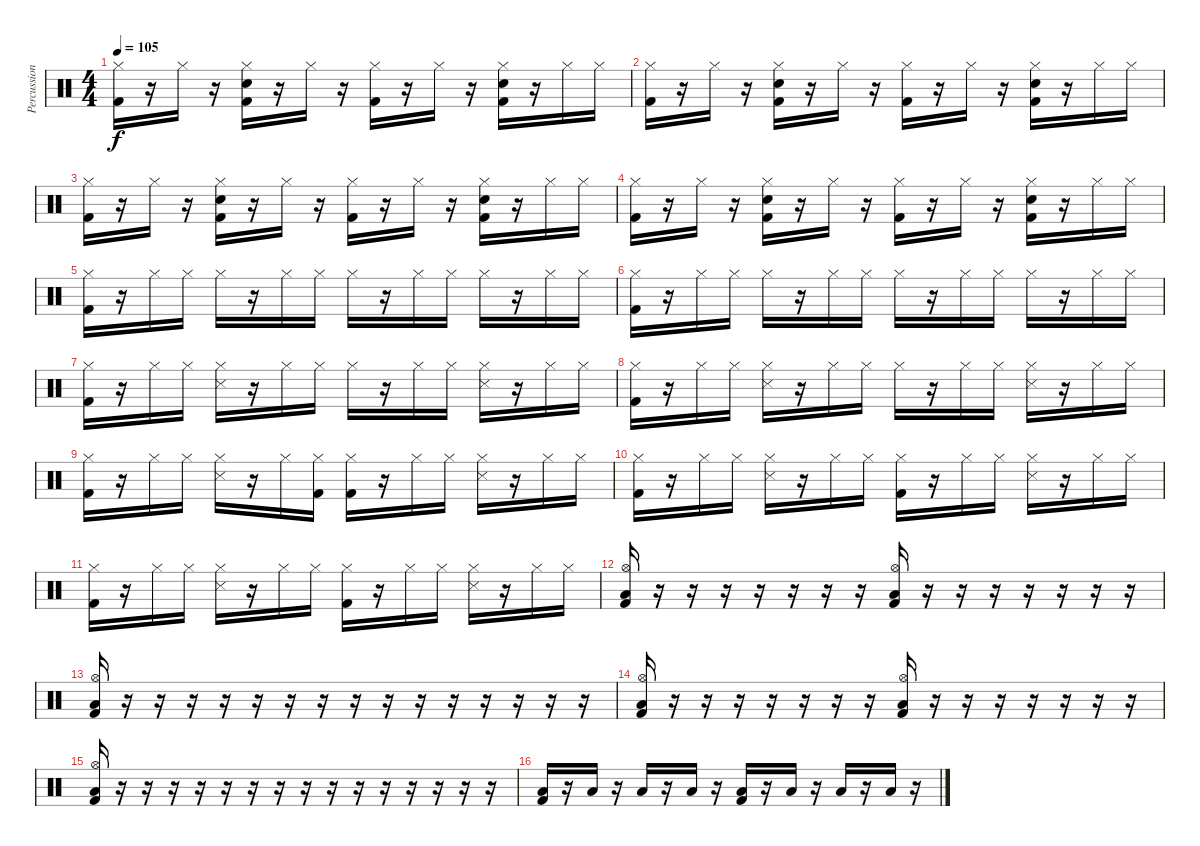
\track ("Percussion" "Percussion") {instrument percussion}
\staff {score}
\articulation defaults
\ts (4 4)
\tempo 105
\clef neutral
\ks c
("Hi-Hat (closed)" "Kick (hit) 2").16{dy f} r.16 "Hi-Hat (closed)".16 r.16 ("Hi-Hat (closed)" "Snare (hit) 2" "Kick (hit) 2").16 r.16 "Hi-Hat (closed)".16 r.16 ("Hi-Hat (closed)" "Kick (hit) 2").16 r.16 "Hi-Hat (closed)".16 r.16 ("Hi-Hat (closed)" "Snare (hit) 2" "Kick (hit) 2").16 r.16 "Hi-Hat (closed)".16 "Hi-Hat (closed)".16 |
("Hi-Hat (closed)" "Kick (hit) 2").16 r.16 "Hi-Hat (closed)".16 r.16 ("Hi-Hat (closed)" "Snare (hit) 2" "Kick (hit) 2").16 r.16 "Hi-Hat (closed)".16 r.16 ("Hi-Hat (closed)" "Kick (hit) 2").16 r.16 "Hi-Hat (closed)".16 r.16 ("Hi-Hat (closed)" "Snare (hit) 2" "Kick (hit) 2").16 r.16 "Hi-Hat (closed)".16 "Hi-Hat (closed)".16 |
("Hi-Hat (closed)" "Kick (hit) 2").16 r.16 "Hi-Hat (closed)".16 r.16 ("Hi-Hat (closed)" "Snare (hit) 2" "Kick (hit) 2").16 r.16 "Hi-Hat (closed)".16 r.16 ("Hi-Hat (closed)" "Kick (hit) 2").16 r.16 "Hi-Hat (closed)".16 r.16 ("Hi-Hat (closed)" "Snare (hit) 2" "Kick (hit) 2").16 r.16 "Hi-Hat (closed)".16 "Hi-Hat (closed)".16 |
("Hi-Hat (closed)" "Kick (hit) 2").16 r.16 "Hi-Hat (closed)".16 r.16 ("Hi-Hat (closed)" "Snare (hit) 2" "Kick (hit) 2").16 r.16 "Hi-Hat (closed)".16 r.16 ("Hi-Hat (closed)" "Kick (hit) 2").16 r.16 "Hi-Hat (closed)".16 r.16 ("Hi-Hat (closed)" "Snare (hit) 2" "Kick (hit) 2").16 r.16 "Hi-Hat (closed)".16 "Hi-Hat (closed)".16 |
("Hi-Hat (closed)" "Kick (hit) 2").16 r.16 "Hi-Hat (closed)".16 "Hi-Hat (closed)".16 "Hi-Hat (closed)".16 r.16 "Hi-Hat (closed)".16 "Hi-Hat (closed)".16 "Hi-Hat (closed)".16 r.16 "Hi-Hat (closed)".16 "Hi-Hat (closed)".16 "Hi-Hat (closed)".16 r.16 "Hi-Hat (closed)".16 "Hi-Hat (closed)".16 |
("Hi-Hat (closed)" "Kick (hit) 2").16 r.16 "Hi-Hat (closed)".16 "Hi-Hat (closed)".16 "Hi-Hat (closed)".16 r.16 "Hi-Hat (closed)".16 "Hi-Hat (closed)".16 "Hi-Hat (closed)".16 r.16 "Hi-Hat (closed)".16 "Hi-Hat (closed)".16 "Hi-Hat (closed)".16 r.16 "Hi-Hat (closed)".16 "Hi-Hat (closed)".16 |
("Hi-Hat (closed)" "Kick (hit) 2").16 r.16 "Hi-Hat (closed)".16 "Hi-Hat (closed)".16 ("Hi-Hat (closed)" "Snare (side stick) 3").16 r.16 "Hi-Hat (closed)".16 "Hi-Hat (closed)".16 "Hi-Hat (closed)".16 r.16 "Hi-Hat (closed)".16 "Hi-Hat (closed)".16 ("Hi-Hat (closed)" "Snare (side stick) 3").16 r.16 "Hi-Hat (closed)".16 "Hi-Hat (closed)".16 |
("Hi-Hat (closed)" "Kick (hit) 2").16 r.16 "Hi-Hat (closed)".16 "Hi-Hat (closed)".16 ("Hi-Hat (closed)" "Snare (side stick) 3").16 r.16 "Hi-Hat (closed)".16 "Hi-Hat (closed)".16 "Hi-Hat (closed)".16 r.16 "Hi-Hat (closed)".16 "Hi-Hat (closed)".16 ("Hi-Hat (closed)" "Snare (side stick) 3").16 r.16 "Hi-Hat (closed)".16 "Hi-Hat (closed)".16 |
("Hi-Hat (closed)" "Kick (hit) 2").16 r.16 "Hi-Hat (closed)".16 "Hi-Hat (closed)".16 ("Hi-Hat (closed)" "Snare (side stick) 3").16 r.16 "Hi-Hat (closed)".16 ("Hi-Hat (closed)" "Kick (hit) 2").16 ("Hi-Hat (closed)" "Kick (hit) 2").16 r.16 "Hi-Hat (closed)".16 "Hi-Hat (closed)".16 ("Hi-Hat (closed)" "Snare (side stick) 3").16 r.16 "Hi-Hat (closed)".16 "Hi-Hat (closed)".16 |
("Hi-Hat (closed)" "Kick (hit) 2").16 r.16 "Hi-Hat (closed)".16 "Hi-Hat (closed)".16 ("Hi-Hat (closed)" "Snare (side stick) 3").16 r.16 "Hi-Hat (closed)".16 "Hi-Hat (closed)".16 ("Hi-Hat (closed)" "Kick (hit) 2").16 r.16 "Hi-Hat (closed)".16 "Hi-Hat (closed)".16 ("Hi-Hat (closed)" "Snare (side stick) 3").16 r.16 "Hi-Hat (closed)".16 "Hi-Hat (closed)".16 |
("Hi-Hat (closed)" "Kick (hit) 2").16 r.16 "Hi-Hat (closed)".16 "Hi-Hat (closed)".16 ("Hi-Hat (closed)" "Snare (side stick) 3").16 r.16 "Hi-Hat (closed)".16 "Hi-Hat (closed)".16 ("Hi-Hat (closed)" "Kick (hit) 2").16 r.16 "Hi-Hat (closed)".16 "Hi-Hat (closed)".16 ("Hi-Hat (closed)" "Snare (side stick) 3").16 r.16 "Hi-Hat (closed)".16 "Hi-Hat (closed)".16 |
("Hi-Hat (open)" "Low Floor Tom (hit)" "Kick (hit) 2").16 r.16 r.16 r.16 r.16 r.16 r.16 r.16 ("Hi-Hat (open)" "Low Floor Tom (hit)" "Kick (hit) 2").16 r.16 r.16 r.16 r.16 r.16 r.16 r.16 |
("Hi-Hat (open)" "Low Floor Tom (hit)" "Kick (hit) 2").16 r.16 r.16 r.16 r.16 r.16 r.16 r.16 r.16 r.16 r.16 r.16 r.16 r.16 r.16 r.16 |
("Hi-Hat (open)" "Low Floor Tom (hit)" "Kick (hit) 2").16 r.16 r.16 r.16 r.16 r.16 r.16 r.16 ("Hi-Hat (open)" "Low Floor Tom (hit)" "Kick (hit) 2").16 r.16 r.16 r.16 r.16 r.16 r.16 r.16 |
("Hi-Hat (open)" "Low Floor Tom (hit)" "Kick (hit) 2").16 r.16 r.16 r.16 r.16 r.16 r.16 r.16 r.16 r.16 r.16 r.16 r.16 r.16 r.16 r.16 |
("Low Floor Tom (hit)" "Kick (hit) 2").16 r.16 "Low Floor Tom (hit)".16 r.16 "Low Floor Tom (hit)".16 r.16 "Low Floor Tom (hit)".16 r.16 ("Low Floor Tom (hit)" "Kick (hit) 2").16 r.16 "Low Floor Tom (hit)".16 r.16 "Low Floor Tom (hit)".16 r.16 "Low Floor Tom (hit)".16 r.16
